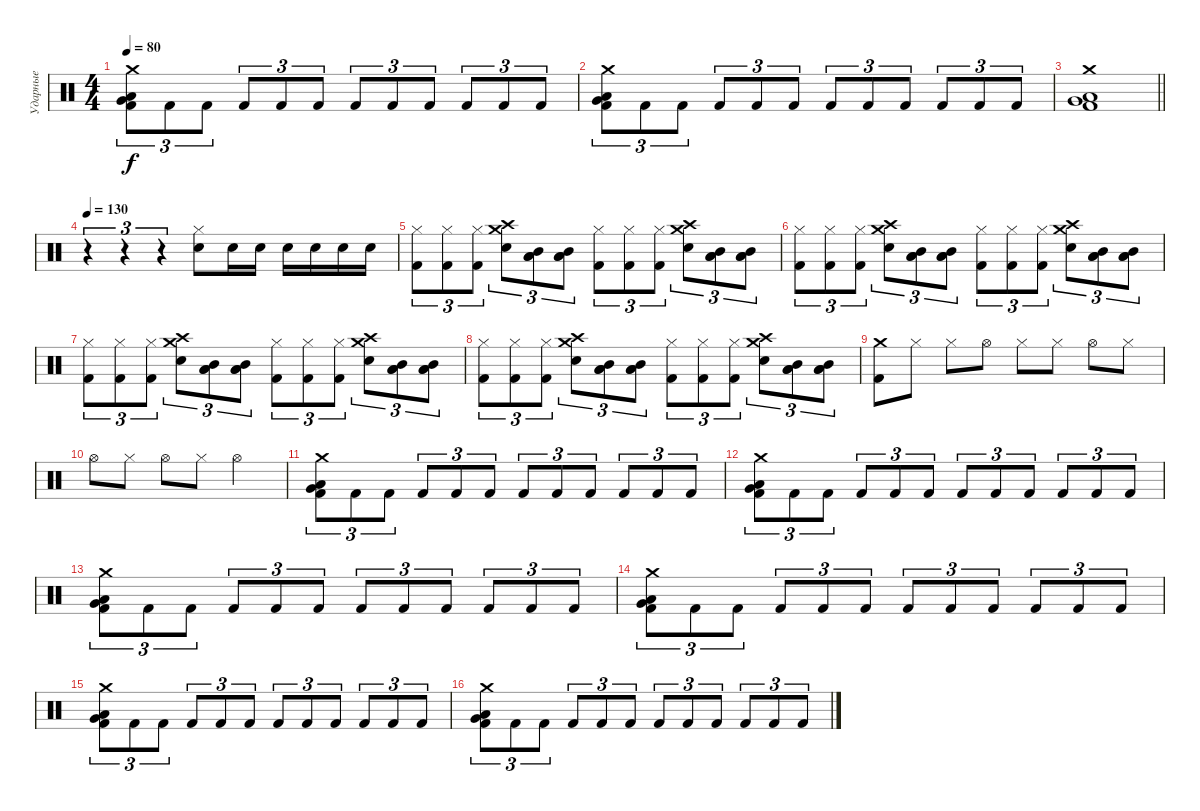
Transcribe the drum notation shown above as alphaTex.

\track ("Ударные" "Ударные") {instrument percussion}
\staff {score}
\articulation defaults
\ts (4 4)
\tempo 80
\clef neutral
\ks c
("Crash medium (hit)" "Low Floor Tom (hit)" "Kick (hit) 2" "Very Low Tom (hit)").8{tu (3 2) dy f} "Kick (hit) 2".8{tu (3 2)} "Kick (hit) 2".8{tu (3 2)} "Kick (hit) 2".8{tu (3 2)} "Kick (hit) 2".8{tu (3 2)} "Kick (hit) 2".8{tu (3 2)} "Kick (hit) 2".8{tu (3 2)} "Kick (hit) 2".8{tu (3 2)} "Kick (hit) 2".8{tu (3 2)} "Kick (hit) 2".8{tu (3 2)} "Kick (hit) 2".8{tu (3 2)} "Kick (hit) 2".8{tu (3 2)} |
("Crash medium (hit)" "Low Floor Tom (hit)" "Kick (hit) 2" "Very Low Tom (hit)").8{tu (3 2)} "Kick (hit) 2".8{tu (3 2)} "Kick (hit) 2".8{tu (3 2)} "Kick (hit) 2".8{tu (3 2)} "Kick (hit) 2".8{tu (3 2)} "Kick (hit) 2".8{tu (3 2)} "Kick (hit) 2".8{tu (3 2)} "Kick (hit) 2".8{tu (3 2)} "Kick (hit) 2".8{tu (3 2)} "Kick (hit) 2".8{tu (3 2)} "Kick (hit) 2".8{tu (3 2)} "Kick (hit) 2".8{tu (3 2)} |
\barLineRight lightlight
("Crash medium (hit)" "Low Floor Tom (hit)" "Kick (hit) 2" "Very Low Tom (hit)").1 |
\tempo 130
r.4{tu (3 2)} r.4{tu (3 2)} r.4{tu (3 2)} ("Hi-Hat (closed)" "Snare (hit) 2").8 "Snare (hit) 2".16 "Snare (hit) 2".16 "Snare (hit) 2".16 "Snare (hit) 2".16 "Snare (hit) 2".16 "Snare (hit) 2".16 |
("Hi-Hat (closed)" "Kick (hit) 2").8{tu (3 2)} ("Hi-Hat (closed)" "Kick (hit) 2").8{tu (3 2)} ("Hi-Hat (closed)" "Kick (hit) 2").8{tu (3 2)} ("Snare (hit) 2" "Crash high (hit)" "Crash medium (hit)").8{tu (3 2)} ("Low Tom (hit)" "Low Floor Tom (hit)" "Mid Tom (hit)").8{tu (3 2)} ("Mid Tom (hit)" "Low Floor Tom (hit)" "Low Tom (hit)").8{tu (3 2)} ("Hi-Hat (closed)" "Kick (hit) 2").8{tu (3 2)} ("Hi-Hat (closed)" "Kick (hit) 2").8{tu (3 2)} ("Hi-Hat (closed)" "Kick (hit) 2").8{tu (3 2)} ("Crash medium (hit)" "Crash high (hit)" "Snare (hit) 2").8{tu (3 2)} ("Mid Tom (hit)" "Low Tom (hit)" "Low Floor Tom (hit)").8{tu (3 2)} ("Mid Tom (hit)" "Low Tom (hit)" "Low Floor Tom (hit)").8{tu (3 2)} |
("Hi-Hat (closed)" "Kick (hit) 2").8{tu (3 2)} ("Hi-Hat (closed)" "Kick (hit) 2").8{tu (3 2)} ("Hi-Hat (closed)" "Kick (hit) 2").8{tu (3 2)} ("Snare (hit) 2" "Crash high (hit)" "Crash medium (hit)").8{tu (3 2)} ("Low Tom (hit)" "Low Floor Tom (hit)" "Mid Tom (hit)").8{tu (3 2)} ("Mid Tom (hit)" "Low Floor Tom (hit)" "Low Tom (hit)").8{tu (3 2)} ("Hi-Hat (closed)" "Kick (hit) 2").8{tu (3 2)} ("Hi-Hat (closed)" "Kick (hit) 2").8{tu (3 2)} ("Hi-Hat (closed)" "Kick (hit) 2").8{tu (3 2)} ("Crash medium (hit)" "Crash high (hit)" "Snare (hit) 2").8{tu (3 2)} ("Mid Tom (hit)" "Low Tom (hit)" "Low Floor Tom (hit)").8{tu (3 2)} ("Mid Tom (hit)" "Low Tom (hit)" "Low Floor Tom (hit)").8{tu (3 2)} |
("Hi-Hat (closed)" "Kick (hit) 2").8{tu (3 2)} ("Hi-Hat (closed)" "Kick (hit) 2").8{tu (3 2)} ("Hi-Hat (closed)" "Kick (hit) 2").8{tu (3 2)} ("Snare (hit) 2" "Crash high (hit)" "Crash medium (hit)").8{tu (3 2)} ("Low Tom (hit)" "Low Floor Tom (hit)" "Mid Tom (hit)").8{tu (3 2)} ("Mid Tom (hit)" "Low Floor Tom (hit)" "Low Tom (hit)").8{tu (3 2)} ("Hi-Hat (closed)" "Kick (hit) 2").8{tu (3 2)} ("Hi-Hat (closed)" "Kick (hit) 2").8{tu (3 2)} ("Hi-Hat (closed)" "Kick (hit) 2").8{tu (3 2)} ("Crash medium (hit)" "Crash high (hit)" "Snare (hit) 2").8{tu (3 2)} ("Mid Tom (hit)" "Low Tom (hit)" "Low Floor Tom (hit)").8{tu (3 2)} ("Mid Tom (hit)" "Low Tom (hit)" "Low Floor Tom (hit)").8{tu (3 2)} |
("Hi-Hat (closed)" "Kick (hit) 2").8{tu (3 2)} ("Hi-Hat (closed)" "Kick (hit) 2").8{tu (3 2)} ("Hi-Hat (closed)" "Kick (hit) 2").8{tu (3 2)} ("Snare (hit) 2" "Crash high (hit)" "Crash medium (hit)").8{tu (3 2)} ("Low Tom (hit)" "Low Floor Tom (hit)" "Mid Tom (hit)").8{tu (3 2)} ("Mid Tom (hit)" "Low Floor Tom (hit)" "Low Tom (hit)").8{tu (3 2)} ("Hi-Hat (closed)" "Kick (hit) 2").8{tu (3 2)} ("Hi-Hat (closed)" "Kick (hit) 2").8{tu (3 2)} ("Hi-Hat (closed)" "Kick (hit) 2").8{tu (3 2)} ("Crash medium (hit)" "Crash high (hit)" "Snare (hit) 2").8{tu (3 2)} ("Mid Tom (hit)" "Low Tom (hit)" "Low Floor Tom (hit)").8{tu (3 2)} ("Mid Tom (hit)" "Low Tom (hit)" "Low Floor Tom (hit)").8{tu (3 2)} |
("Kick (hit) 2" "Crash medium (hit)").8 "Hi-Hat (closed)".8 "Hi-Hat (closed)".8 "Hi-Hat (open)".8 "Hi-Hat (closed)".8 "Hi-Hat (closed)".8 "Hi-Hat (open)".8 "Hi-Hat (closed)".8 |
"Hi-Hat (open)".8 "Hi-Hat (closed)".8 "Hi-Hat (open)".8 "Hi-Hat (closed)".8 "Hi-Hat (open)".2 |
("Crash medium (hit)" "Low Floor Tom (hit)" "Kick (hit) 2" "Very Low Tom (hit)").8{tu (3 2)} "Kick (hit) 2".8{tu (3 2)} "Kick (hit) 2".8{tu (3 2)} "Kick (hit) 2".8{tu (3 2)} "Kick (hit) 2".8{tu (3 2)} "Kick (hit) 2".8{tu (3 2)} "Kick (hit) 2".8{tu (3 2)} "Kick (hit) 2".8{tu (3 2)} "Kick (hit) 2".8{tu (3 2)} "Kick (hit) 2".8{tu (3 2)} "Kick (hit) 2".8{tu (3 2)} "Kick (hit) 2".8{tu (3 2)} |
("Crash medium (hit)" "Low Floor Tom (hit)" "Kick (hit) 2" "Very Low Tom (hit)").8{tu (3 2)} "Kick (hit) 2".8{tu (3 2)} "Kick (hit) 2".8{tu (3 2)} "Kick (hit) 2".8{tu (3 2)} "Kick (hit) 2".8{tu (3 2)} "Kick (hit) 2".8{tu (3 2)} "Kick (hit) 2".8{tu (3 2)} "Kick (hit) 2".8{tu (3 2)} "Kick (hit) 2".8{tu (3 2)} "Kick (hit) 2".8{tu (3 2)} "Kick (hit) 2".8{tu (3 2)} "Kick (hit) 2".8{tu (3 2)} |
("Crash medium (hit)" "Low Floor Tom (hit)" "Kick (hit) 2" "Very Low Tom (hit)").8{tu (3 2)} "Kick (hit) 2".8{tu (3 2)} "Kick (hit) 2".8{tu (3 2)} "Kick (hit) 2".8{tu (3 2)} "Kick (hit) 2".8{tu (3 2)} "Kick (hit) 2".8{tu (3 2)} "Kick (hit) 2".8{tu (3 2)} "Kick (hit) 2".8{tu (3 2)} "Kick (hit) 2".8{tu (3 2)} "Kick (hit) 2".8{tu (3 2)} "Kick (hit) 2".8{tu (3 2)} "Kick (hit) 2".8{tu (3 2)} |
("Crash medium (hit)" "Low Floor Tom (hit)" "Kick (hit) 2" "Very Low Tom (hit)").8{tu (3 2)} "Kick (hit) 2".8{tu (3 2)} "Kick (hit) 2".8{tu (3 2)} "Kick (hit) 2".8{tu (3 2)} "Kick (hit) 2".8{tu (3 2)} "Kick (hit) 2".8{tu (3 2)} "Kick (hit) 2".8{tu (3 2)} "Kick (hit) 2".8{tu (3 2)} "Kick (hit) 2".8{tu (3 2)} "Kick (hit) 2".8{tu (3 2)} "Kick (hit) 2".8{tu (3 2)} "Kick (hit) 2".8{tu (3 2)} |
("Crash medium (hit)" "Low Floor Tom (hit)" "Kick (hit) 2" "Very Low Tom (hit)").8{tu (3 2)} "Kick (hit) 2".8{tu (3 2)} "Kick (hit) 2".8{tu (3 2)} "Kick (hit) 2".8{tu (3 2)} "Kick (hit) 2".8{tu (3 2)} "Kick (hit) 2".8{tu (3 2)} "Kick (hit) 2".8{tu (3 2)} "Kick (hit) 2".8{tu (3 2)} "Kick (hit) 2".8{tu (3 2)} "Kick (hit) 2".8{tu (3 2)} "Kick (hit) 2".8{tu (3 2)} "Kick (hit) 2".8{tu (3 2)} |
("Crash medium (hit)" "Low Floor Tom (hit)" "Kick (hit) 2" "Very Low Tom (hit)").8{tu (3 2)} "Kick (hit) 2".8{tu (3 2)} "Kick (hit) 2".8{tu (3 2)} "Kick (hit) 2".8{tu (3 2)} "Kick (hit) 2".8{tu (3 2)} "Kick (hit) 2".8{tu (3 2)} "Kick (hit) 2".8{tu (3 2)} "Kick (hit) 2".8{tu (3 2)} "Kick (hit) 2".8{tu (3 2)} "Kick (hit) 2".8{tu (3 2)} "Kick (hit) 2".8{tu (3 2)} "Kick (hit) 2".8{tu (3 2)}
